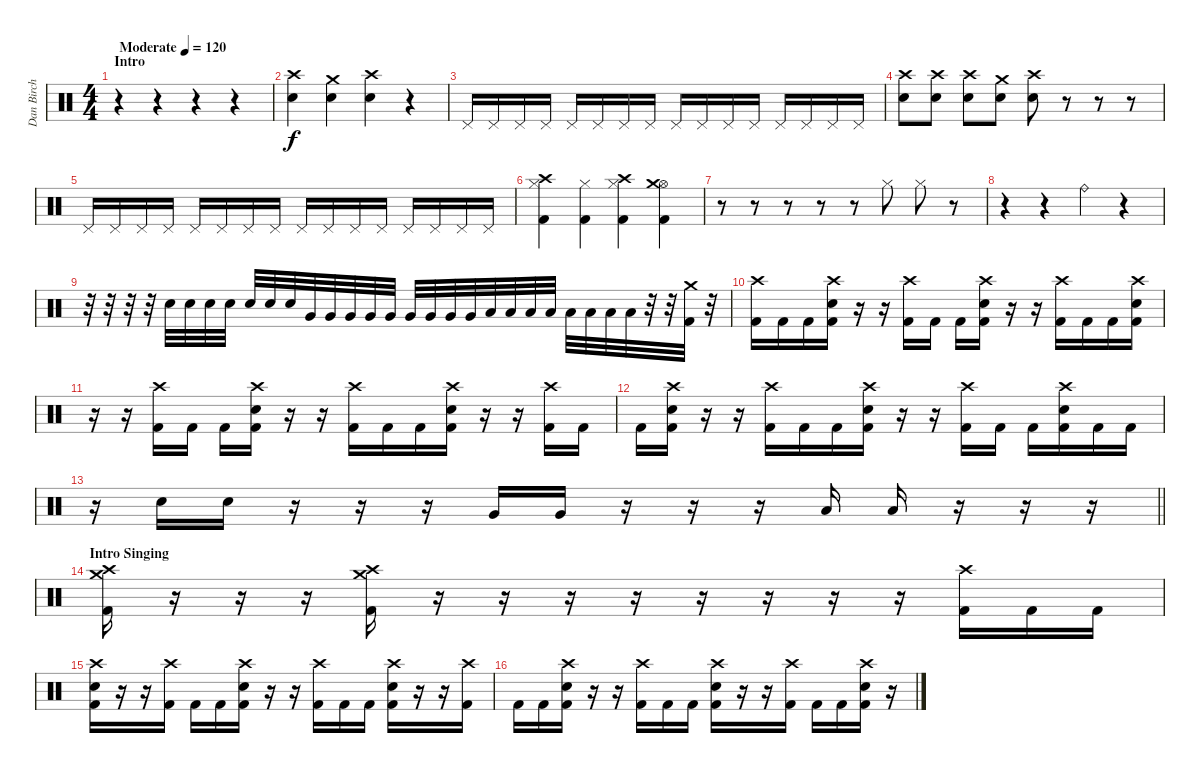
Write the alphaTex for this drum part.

\track ("Dan Birch" "Dan Birch") {instrument percussion}
\staff {score}
\articulation defaults
\ts (4 4)
\section ("" "Intro")
\tempo (120 "Moderate")
\clef neutral
\ks c
r.4{dy f} r.4 r.4 r.4 |
("Crash high (hit)" "Snare (hit) 2").4 ("Crash medium (hit)" "Snare (hit) 2").4 ("Crash high (hit)" "Snare (hit) 2").4 r.4 |
"Pedal Hi-Hat (hit)".16 "Pedal Hi-Hat (hit)".16 "Pedal Hi-Hat (hit)".16 "Pedal Hi-Hat (hit)".16 "Pedal Hi-Hat (hit)".16 "Pedal Hi-Hat (hit)".16 "Pedal Hi-Hat (hit)".16 "Pedal Hi-Hat (hit)".16 "Pedal Hi-Hat (hit)".16 "Pedal Hi-Hat (hit)".16 "Pedal Hi-Hat (hit)".16 "Pedal Hi-Hat (hit)".16 "Pedal Hi-Hat (hit)".16 "Pedal Hi-Hat (hit)".16 "Pedal Hi-Hat (hit)".16 "Pedal Hi-Hat (hit)".16 |
("Crash high (hit)" "Snare (hit) 2").8 ("Crash high (hit)" "Snare (hit) 2").8 ("Crash high (hit)" "Snare (hit) 2").8 ("Crash medium (hit)" "Snare (hit) 2").8 ("Crash high (hit)" "Snare (hit) 2").8 r.8 r.8 r.8 |
"Pedal Hi-Hat (hit)".16 "Pedal Hi-Hat (hit)".16 "Pedal Hi-Hat (hit)".16 "Pedal Hi-Hat (hit)".16 "Pedal Hi-Hat (hit)".16 "Pedal Hi-Hat (hit)".16 "Pedal Hi-Hat (hit)".16 "Pedal Hi-Hat (hit)".16 "Pedal Hi-Hat (hit)".16 "Pedal Hi-Hat (hit)".16 "Pedal Hi-Hat (hit)".16 "Pedal Hi-Hat (hit)".16 "Pedal Hi-Hat (hit)".16 "Pedal Hi-Hat (hit)".16 "Pedal Hi-Hat (hit)".16 "Pedal Hi-Hat (hit)".16 |
("Hi-Hat (closed)" "Crash high (hit)" "Kick (hit) 2").4 ("Hi-Hat (closed)" "Kick (hit) 2").4 ("Hi-Hat (closed)" "Crash high (hit)" "Kick (hit) 2").4 ("Hi-Hat (open)" "Crash medium (hit)" "Kick (hit) 2").4 |
r.8 r.8 r.8 r.8 r.8 "Hi-Hat (closed)".8 "Hi-Hat (closed)".8 r.8 |
r.4 r.4 "Ride (bell)".4 r.4 |
r.32 r.32 r.32 r.32 "Snare (hit) 2".32 "Snare (hit) 2".32 "Snare (hit) 2".32 "Snare (hit) 2".32 "Snare (hit) 2".32 "Snare (hit) 2".32 "Snare (hit) 2".32 "Very Low Tom (hit)".32 "Very Low Tom (hit)".32 "Very Low Tom (hit)".32 "Very Low Tom (hit)".32 "Very Low Tom (hit)".32 "Very Low Tom (hit)".32 "Very Low Tom (hit)".32 "Very Low Tom (hit)".32 "Very Low Tom (hit)".32 "Low Tom (hit)".32 "Low Tom (hit)".32 "Low Tom (hit)".32 "Low Tom (hit)".32 "Low Tom (hit)".32 "Low Tom (hit)".32 "Low Tom (hit)".32 "Low Floor Tom (hit)".32 r.32 r.32 ("Crash medium (hit)" "Kick (hit) 2").32 r.32 |
("Crash high (hit)" "Kick (hit) 2").16 "Kick (hit) 2".16 "Kick (hit) 2".16 ("Crash high (hit)" "Kick (hit) 2" "Snare (hit) 2").16 r.16 r.16 ("Crash high (hit)" "Kick (hit) 2").16 "Kick (hit) 2".16 "Kick (hit) 2".16 ("Crash high (hit)" "Kick (hit) 2" "Snare (hit) 2").16 r.16 r.16 ("Crash high (hit)" "Kick (hit) 2").16 "Kick (hit) 2".16 "Kick (hit) 2".16 ("Crash high (hit)" "Kick (hit) 2" "Snare (hit) 2").16 |
r.16 r.16 ("Crash high (hit)" "Kick (hit) 2").16 "Kick (hit) 2".16 "Kick (hit) 2".16 ("Crash high (hit)" "Kick (hit) 2" "Snare (hit) 2").16 r.16 r.16 ("Crash high (hit)" "Kick (hit) 2").16 "Kick (hit) 2".16 "Kick (hit) 2".16 ("Crash high (hit)" "Kick (hit) 2" "Snare (hit) 2").16 r.16 r.16 ("Crash high (hit)" "Kick (hit) 2").16 "Kick (hit) 2".16 |
"Kick (hit) 2".16 ("Crash high (hit)" "Kick (hit) 2" "Snare (hit) 2").16 r.16 r.16 ("Crash high (hit)" "Kick (hit) 2").16 "Kick (hit) 2".16 "Kick (hit) 2".16 ("Crash high (hit)" "Kick (hit) 2" "Snare (hit) 2").16 r.16 r.16 ("Crash high (hit)" "Kick (hit) 2").16 "Kick (hit) 2".16 "Kick (hit) 2".16 ("Crash high (hit)" "Kick (hit) 2" "Snare (hit) 2").16 "Kick (hit) 2".16 "Kick (hit) 2".16 |
\barLineRight lightlight
r.16 "Snare (hit) 2".16 "Snare (hit) 2".16 r.16 r.16 r.16 "Very Low Tom (hit)".16 "Very Low Tom (hit)".16 r.16 r.16 r.16 "Low Tom (hit)".16 "Low Tom (hit)".16 r.16 r.16 r.16 |
\section ("" "Intro Singing")
("Kick (hit) 2" "Crash high (hit)" "Crash medium (hit)").16 r.16 r.16 r.16 ("Kick (hit) 2" "Crash high (hit)" "Crash medium (hit)").16 r.16 r.16 r.16 r.16 r.16 r.16 r.16 r.16 ("Crash high (hit)" "Kick (hit) 2").16 "Kick (hit) 2".16 "Kick (hit) 2".16 |
("Crash high (hit)" "Kick (hit) 2" "Snare (hit) 2").16 r.16 r.16 ("Crash high (hit)" "Kick (hit) 2").16 "Kick (hit) 2".16 "Kick (hit) 2".16 ("Crash high (hit)" "Kick (hit) 2" "Snare (hit) 2").16 r.16 r.16 ("Crash high (hit)" "Kick (hit) 2").16 "Kick (hit) 2".16 "Kick (hit) 2".16 ("Crash high (hit)" "Kick (hit) 2" "Snare (hit) 2").16 r.16 r.16 ("Crash high (hit)" "Kick (hit) 2").16 |
"Kick (hit) 2".16 "Kick (hit) 2".16 ("Crash high (hit)" "Kick (hit) 2" "Snare (hit) 2").16 r.16 r.16 ("Crash high (hit)" "Kick (hit) 2").16 "Kick (hit) 2".16 "Kick (hit) 2".16 ("Crash high (hit)" "Kick (hit) 2" "Snare (hit) 2").16 r.16 r.16 ("Crash high (hit)" "Kick (hit) 2").16 "Kick (hit) 2".16 "Kick (hit) 2".16 ("Crash high (hit)" "Kick (hit) 2" "Snare (hit) 2").16 r.16
